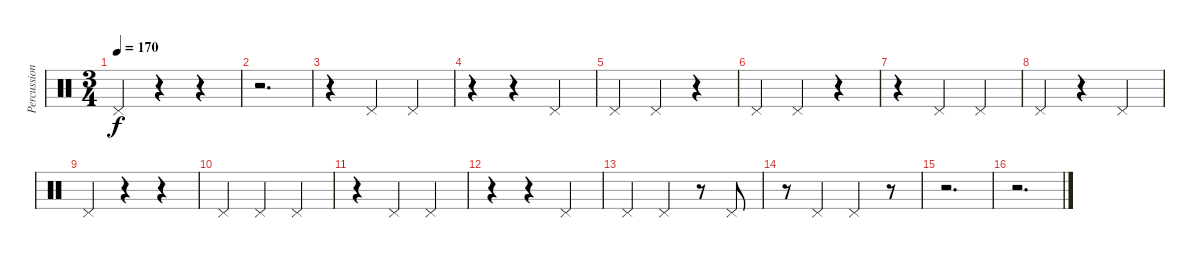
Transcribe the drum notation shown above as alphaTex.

\track ("Percussion" "Percussion") {instrument percussion}
\staff {score}
\articulation defaults
\ts (3 4)
\tempo 170
\clef neutral
\ks c "Pedal Hi-Hat (hit)".4{dy f}
r.4 r.4 |
r.2{d} |
r.4 "Pedal Hi-Hat (hit)".4 "Pedal Hi-Hat (hit)".4 |
r.4 r.4 "Pedal Hi-Hat (hit)".4 |
"Pedal Hi-Hat (hit)".4 "Pedal Hi-Hat (hit)".4 r.4 |
"Pedal Hi-Hat (hit)".4 "Pedal Hi-Hat (hit)".4 r.4 |
r.4 "Pedal Hi-Hat (hit)".4 "Pedal Hi-Hat (hit)".4 |
"Pedal Hi-Hat (hit)".4 r.4 "Pedal Hi-Hat (hit)".4 |
"Pedal Hi-Hat (hit)".4 r.4 r.4 |
"Pedal Hi-Hat (hit)".4 "Pedal Hi-Hat (hit)".4 "Pedal Hi-Hat (hit)".4 |
r.4 "Pedal Hi-Hat (hit)".4 "Pedal Hi-Hat (hit)".4 |
r.4 r.4 "Pedal Hi-Hat (hit)".4 |
"Pedal Hi-Hat (hit)".4 "Pedal Hi-Hat (hit)".4 r.8 "Pedal Hi-Hat (hit)".8 |
r.8 "Pedal Hi-Hat (hit)".4 "Pedal Hi-Hat (hit)".4 r.8 |
r.2{d} |
r.2{d}
